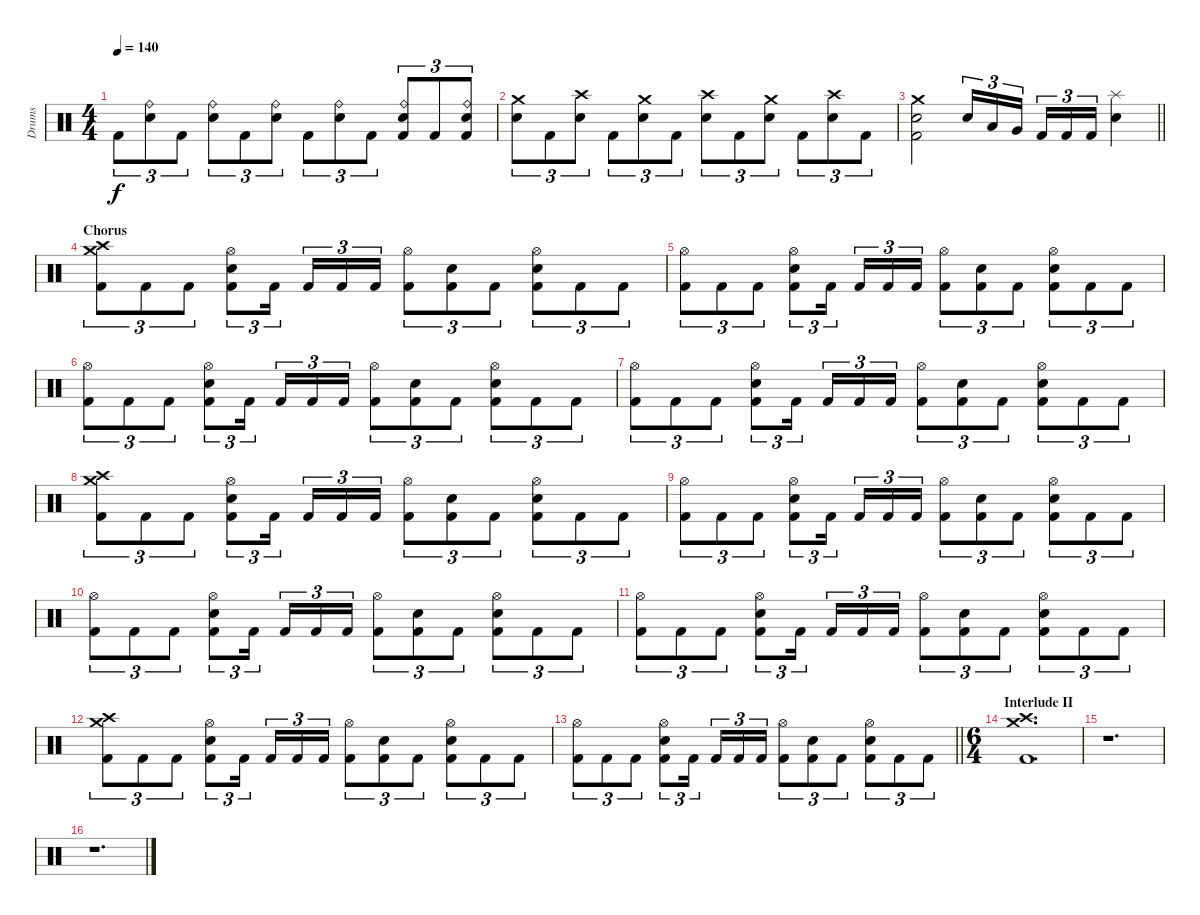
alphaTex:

\track ("Drums" "Drums") {instrument percussion}
\staff {score}
\articulation defaults
\ts (4 4)
\tempo 140
\clef neutral
\ks c "Kick (hit) 2".8{tu (3 2) dy f}
("Ride (bell)" "Electric Snare (hit)").8{tu (3 2)} "Kick (hit) 2".8{tu (3 2)} ("Ride (bell)" "Electric Snare (hit)").8{tu (3 2)} "Kick (hit) 2".8{tu (3 2)} ("Ride (bell)" "Electric Snare (hit)").8{tu (3 2)} "Kick (hit) 2".8{tu (3 2)} ("Ride (bell)" "Electric Snare (hit)").8{tu (3 2)} "Kick (hit) 2".8{tu (3 2)} ("Ride (bell)" "Electric Snare (hit)" "Kick (hit) 2").8{tu (3 2)} "Kick (hit) 2".8{tu (3 2)} ("Ride (bell)" "Electric Snare (hit)" "Kick (hit) 2").8{tu (3 2)} |
("Crash medium (hit)" "Electric Snare (hit)").8{tu (3 2)} "Kick (hit) 2".8{tu (3 2)} ("Crash high (hit)" "Electric Snare (hit)").8{tu (3 2)} "Kick (hit) 2".8{tu (3 2)} ("Crash medium (hit)" "Electric Snare (hit)").8{tu (3 2)} "Kick (hit) 2".8{tu (3 2)} ("Crash high (hit)" "Electric Snare (hit)").8{tu (3 2)} "Kick (hit) 2".8{tu (3 2)} ("Crash medium (hit)" "Electric Snare (hit)").8{tu (3 2)} "Kick (hit) 2".8{tu (3 2)} ("Crash high (hit)" "Electric Snare (hit)").8{tu (3 2)} "Kick (hit) 2".8{tu (3 2)} |
\barLineRight lightlight
("Crash medium (hit)" "Electric Snare (hit)" "Kick (hit) 2").2 "Electric Snare (hit)".16{tu (3 2)} "Low Tom (hit)".16{tu (3 2)} "Very Low Tom (hit)".16{tu (3 2) beam splitsecondary} "Kick (hit) 2".16{tu (3 2)} "Kick (hit) 2".16{tu (3 2)} "Kick (hit) 2".16{tu (3 2)} ("Splash (hit)" "Electric Snare (hit)").4 |
\section ("" "Chorus")
("Crash medium (hit)" "Crash high (hit)" "Kick (hit) 2").8{tu (3 2)} "Kick (hit) 2".8{tu (3 2)} "Kick (hit) 2".8{tu (3 2)} ("Hi-Hat (open)" "Electric Snare (hit)" "Kick (hit) 2").8{tu (3 2)} "Kick (hit) 2".16{tu (3 2) beam splitsecondary} "Kick (hit) 2".16{tu (3 2)} "Kick (hit) 2".16{tu (3 2)} "Kick (hit) 2".16{tu (3 2)} ("Hi-Hat (open)" "Kick (hit) 2").8{tu (3 2)} ("Electric Snare (hit)" "Kick (hit) 2").8{tu (3 2)} "Kick (hit) 2".8{tu (3 2)} ("Hi-Hat (open)" "Electric Snare (hit)" "Kick (hit) 2").8{tu (3 2)} "Kick (hit) 2".8{tu (3 2)} "Kick (hit) 2".8{tu (3 2)} |
("Hi-Hat (open)" "Kick (hit) 2").8{tu (3 2)} "Kick (hit) 2".8{tu (3 2)} "Kick (hit) 2".8{tu (3 2)} ("Hi-Hat (open)" "Electric Snare (hit)" "Kick (hit) 2").8{tu (3 2)} "Kick (hit) 2".16{tu (3 2) beam splitsecondary} "Kick (hit) 2".16{tu (3 2)} "Kick (hit) 2".16{tu (3 2)} "Kick (hit) 2".16{tu (3 2)} ("Hi-Hat (open)" "Kick (hit) 2").8{tu (3 2)} ("Electric Snare (hit)" "Kick (hit) 2").8{tu (3 2)} "Kick (hit) 2".8{tu (3 2)} ("Hi-Hat (open)" "Electric Snare (hit)" "Kick (hit) 2").8{tu (3 2)} "Kick (hit) 2".8{tu (3 2)} "Kick (hit) 2".8{tu (3 2)} |
("Hi-Hat (open)" "Kick (hit) 2").8{tu (3 2)} "Kick (hit) 2".8{tu (3 2)} "Kick (hit) 2".8{tu (3 2)} ("Hi-Hat (open)" "Electric Snare (hit)" "Kick (hit) 2").8{tu (3 2)} "Kick (hit) 2".16{tu (3 2) beam splitsecondary} "Kick (hit) 2".16{tu (3 2)} "Kick (hit) 2".16{tu (3 2)} "Kick (hit) 2".16{tu (3 2)} ("Hi-Hat (open)" "Kick (hit) 2").8{tu (3 2)} ("Electric Snare (hit)" "Kick (hit) 2").8{tu (3 2)} "Kick (hit) 2".8{tu (3 2)} ("Hi-Hat (open)" "Electric Snare (hit)" "Kick (hit) 2").8{tu (3 2)} "Kick (hit) 2".8{tu (3 2)} "Kick (hit) 2".8{tu (3 2)} |
("Hi-Hat (open)" "Kick (hit) 2").8{tu (3 2)} "Kick (hit) 2".8{tu (3 2)} "Kick (hit) 2".8{tu (3 2)} ("Hi-Hat (open)" "Electric Snare (hit)" "Kick (hit) 2").8{tu (3 2)} "Kick (hit) 2".16{tu (3 2) beam splitsecondary} "Kick (hit) 2".16{tu (3 2)} "Kick (hit) 2".16{tu (3 2)} "Kick (hit) 2".16{tu (3 2)} ("Hi-Hat (open)" "Kick (hit) 2").8{tu (3 2)} ("Electric Snare (hit)" "Kick (hit) 2").8{tu (3 2)} "Kick (hit) 2".8{tu (3 2)} ("Hi-Hat (open)" "Electric Snare (hit)" "Kick (hit) 2").8{tu (3 2)} "Kick (hit) 2".8{tu (3 2)} "Kick (hit) 2".8{tu (3 2)} |
("Crash medium (hit)" "Crash high (hit)" "Kick (hit) 2").8{tu (3 2)} "Kick (hit) 2".8{tu (3 2)} "Kick (hit) 2".8{tu (3 2)} ("Hi-Hat (open)" "Electric Snare (hit)" "Kick (hit) 2").8{tu (3 2)} "Kick (hit) 2".16{tu (3 2) beam splitsecondary} "Kick (hit) 2".16{tu (3 2)} "Kick (hit) 2".16{tu (3 2)} "Kick (hit) 2".16{tu (3 2)} ("Hi-Hat (open)" "Kick (hit) 2").8{tu (3 2)} ("Electric Snare (hit)" "Kick (hit) 2").8{tu (3 2)} "Kick (hit) 2".8{tu (3 2)} ("Hi-Hat (open)" "Electric Snare (hit)" "Kick (hit) 2").8{tu (3 2)} "Kick (hit) 2".8{tu (3 2)} "Kick (hit) 2".8{tu (3 2)} |
("Hi-Hat (open)" "Kick (hit) 2").8{tu (3 2)} "Kick (hit) 2".8{tu (3 2)} "Kick (hit) 2".8{tu (3 2)} ("Hi-Hat (open)" "Electric Snare (hit)" "Kick (hit) 2").8{tu (3 2)} "Kick (hit) 2".16{tu (3 2) beam splitsecondary} "Kick (hit) 2".16{tu (3 2)} "Kick (hit) 2".16{tu (3 2)} "Kick (hit) 2".16{tu (3 2)} ("Hi-Hat (open)" "Kick (hit) 2").8{tu (3 2)} ("Electric Snare (hit)" "Kick (hit) 2").8{tu (3 2)} "Kick (hit) 2".8{tu (3 2)} ("Hi-Hat (open)" "Electric Snare (hit)" "Kick (hit) 2").8{tu (3 2)} "Kick (hit) 2".8{tu (3 2)} "Kick (hit) 2".8{tu (3 2)} |
("Hi-Hat (open)" "Kick (hit) 2").8{tu (3 2)} "Kick (hit) 2".8{tu (3 2)} "Kick (hit) 2".8{tu (3 2)} ("Hi-Hat (open)" "Electric Snare (hit)" "Kick (hit) 2").8{tu (3 2)} "Kick (hit) 2".16{tu (3 2) beam splitsecondary} "Kick (hit) 2".16{tu (3 2)} "Kick (hit) 2".16{tu (3 2)} "Kick (hit) 2".16{tu (3 2)} ("Hi-Hat (open)" "Kick (hit) 2").8{tu (3 2)} ("Electric Snare (hit)" "Kick (hit) 2").8{tu (3 2)} "Kick (hit) 2".8{tu (3 2)} ("Hi-Hat (open)" "Electric Snare (hit)" "Kick (hit) 2").8{tu (3 2)} "Kick (hit) 2".8{tu (3 2)} "Kick (hit) 2".8{tu (3 2)} |
("Hi-Hat (open)" "Kick (hit) 2").8{tu (3 2)} "Kick (hit) 2".8{tu (3 2)} "Kick (hit) 2".8{tu (3 2)} ("Hi-Hat (open)" "Electric Snare (hit)" "Kick (hit) 2").8{tu (3 2)} "Kick (hit) 2".16{tu (3 2) beam splitsecondary} "Kick (hit) 2".16{tu (3 2)} "Kick (hit) 2".16{tu (3 2)} "Kick (hit) 2".16{tu (3 2)} ("Hi-Hat (open)" "Kick (hit) 2").8{tu (3 2)} ("Electric Snare (hit)" "Kick (hit) 2").8{tu (3 2)} "Kick (hit) 2".8{tu (3 2)} ("Hi-Hat (open)" "Electric Snare (hit)" "Kick (hit) 2").8{tu (3 2)} "Kick (hit) 2".8{tu (3 2)} "Kick (hit) 2".8{tu (3 2)} |
("Crash medium (hit)" "Crash high (hit)" "Kick (hit) 2").8{tu (3 2)} "Kick (hit) 2".8{tu (3 2)} "Kick (hit) 2".8{tu (3 2)} ("Hi-Hat (open)" "Electric Snare (hit)" "Kick (hit) 2").8{tu (3 2)} "Kick (hit) 2".16{tu (3 2) beam splitsecondary} "Kick (hit) 2".16{tu (3 2)} "Kick (hit) 2".16{tu (3 2)} "Kick (hit) 2".16{tu (3 2)} ("Hi-Hat (open)" "Kick (hit) 2").8{tu (3 2)} ("Electric Snare (hit)" "Kick (hit) 2").8{tu (3 2)} "Kick (hit) 2".8{tu (3 2)} ("Hi-Hat (open)" "Electric Snare (hit)" "Kick (hit) 2").8{tu (3 2)} "Kick (hit) 2".8{tu (3 2)} "Kick (hit) 2".8{tu (3 2)} |
\barLineRight lightlight
("Hi-Hat (open)" "Kick (hit) 2").8{tu (3 2)} "Kick (hit) 2".8{tu (3 2)} "Kick (hit) 2".8{tu (3 2)} ("Hi-Hat (open)" "Electric Snare (hit)" "Kick (hit) 2").8{tu (3 2)} "Kick (hit) 2".16{tu (3 2) beam splitsecondary} "Kick (hit) 2".16{tu (3 2)} "Kick (hit) 2".16{tu (3 2)} "Kick (hit) 2".16{tu (3 2)} ("Hi-Hat (open)" "Kick (hit) 2").8{tu (3 2)} ("Electric Snare (hit)" "Kick (hit) 2").8{tu (3 2)} "Kick (hit) 2".8{tu (3 2)} ("Hi-Hat (open)" "Electric Snare (hit)" "Kick (hit) 2").8{tu (3 2)} "Kick (hit) 2".8{tu (3 2)} "Kick (hit) 2".8{tu (3 2)} |
\ts (6 4)
\section ("" "Interlude II")
("Crash medium (hit)" "Crash high (hit)" "Kick (hit) 2").1{d} |
r.1{d} |
r.1{d}
